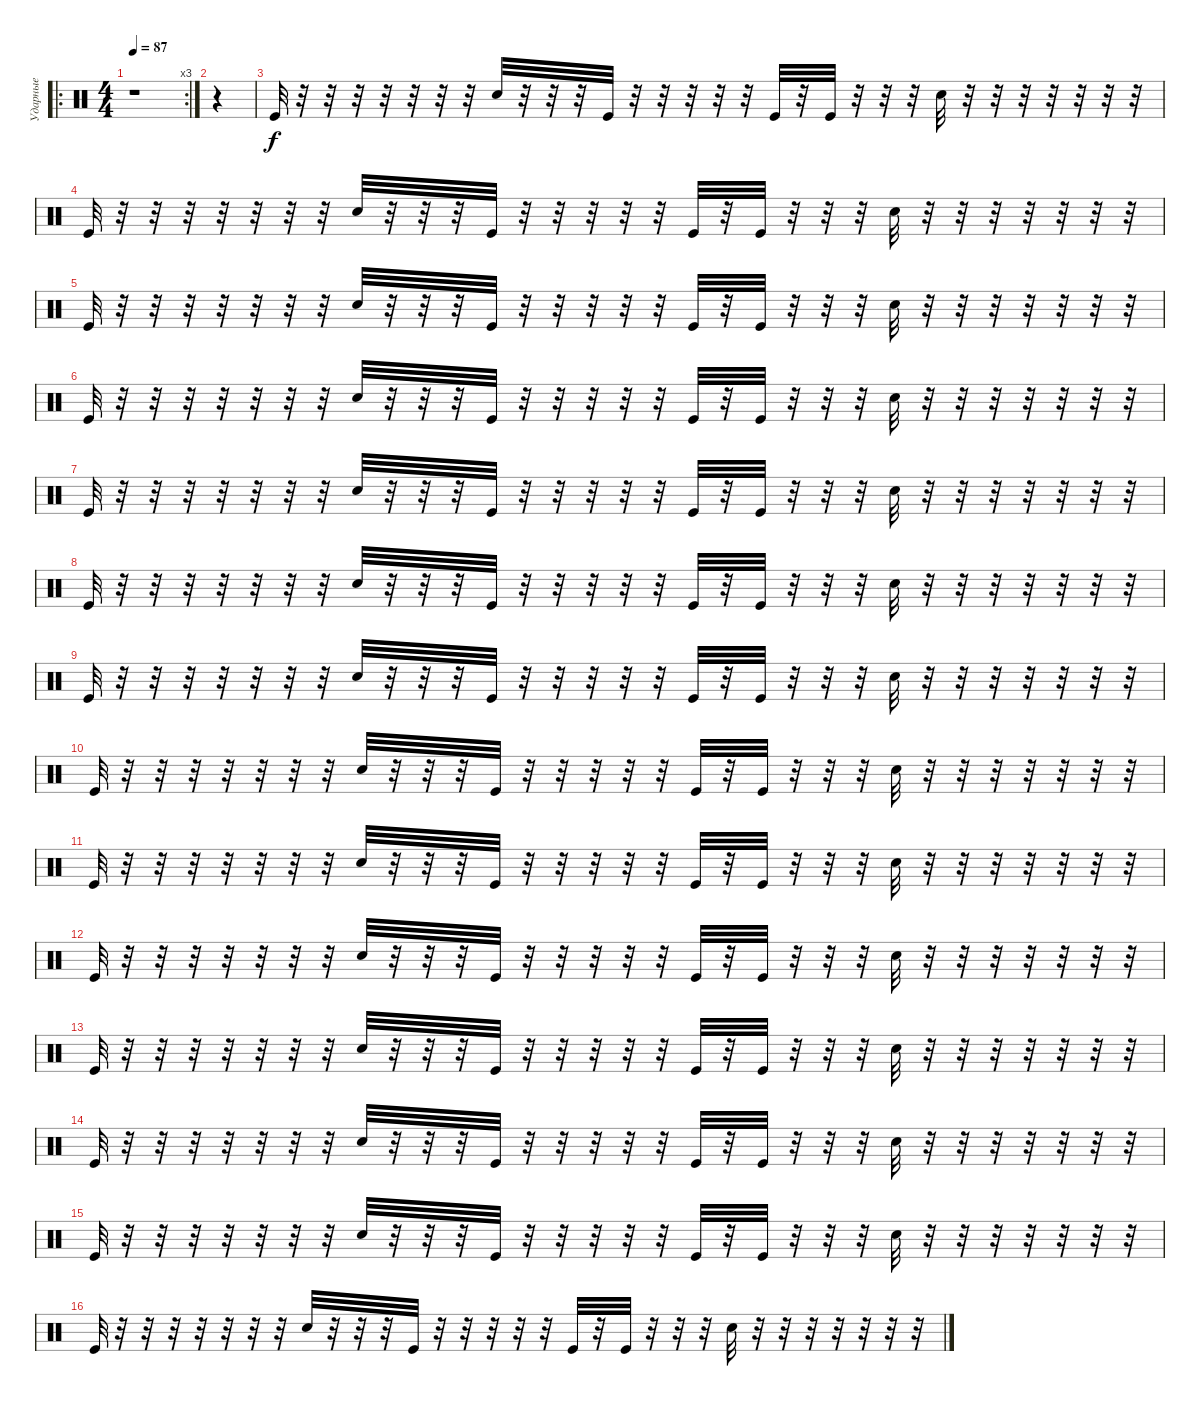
\track ("Ударные" "Ударные") {instrument percussion}
\staff {score}
\articulation defaults
\ro
\rc 3
\ts (4 4)
\tempo 87
\clef neutral
\ks c
r.1{dy f} |
r.4 |
"Kick (hit)".32 r.32 r.32 r.32 r.32 r.32 r.32 r.32 "Hand Clap (hit)".32 r.32 r.32 r.32 "Kick (hit)".32 r.32 r.32 r.32 r.32 r.32 "Kick (hit)".32 r.32 "Kick (hit)".32 r.32 r.32 r.32 "Hand Clap (hit)".32 r.32 r.32 r.32 r.32 r.32 r.32 r.32 |
"Kick (hit)".32 r.32 r.32 r.32 r.32 r.32 r.32 r.32 "Hand Clap (hit)".32 r.32 r.32 r.32 "Kick (hit)".32 r.32 r.32 r.32 r.32 r.32 "Kick (hit)".32 r.32 "Kick (hit)".32 r.32 r.32 r.32 "Hand Clap (hit)".32 r.32 r.32 r.32 r.32 r.32 r.32 r.32 |
"Kick (hit)".32 r.32 r.32 r.32 r.32 r.32 r.32 r.32 "Hand Clap (hit)".32 r.32 r.32 r.32 "Kick (hit)".32 r.32 r.32 r.32 r.32 r.32 "Kick (hit)".32 r.32 "Kick (hit)".32 r.32 r.32 r.32 "Hand Clap (hit)".32 r.32 r.32 r.32 r.32 r.32 r.32 r.32 |
"Kick (hit)".32 r.32 r.32 r.32 r.32 r.32 r.32 r.32 "Hand Clap (hit)".32 r.32 r.32 r.32 "Kick (hit)".32 r.32 r.32 r.32 r.32 r.32 "Kick (hit)".32 r.32 "Kick (hit)".32 r.32 r.32 r.32 "Hand Clap (hit)".32 r.32 r.32 r.32 r.32 r.32 r.32 r.32 |
"Kick (hit)".32 r.32 r.32 r.32 r.32 r.32 r.32 r.32 "Hand Clap (hit)".32 r.32 r.32 r.32 "Kick (hit)".32 r.32 r.32 r.32 r.32 r.32 "Kick (hit)".32 r.32 "Kick (hit)".32 r.32 r.32 r.32 "Hand Clap (hit)".32 r.32 r.32 r.32 r.32 r.32 r.32 r.32 |
"Kick (hit)".32 r.32 r.32 r.32 r.32 r.32 r.32 r.32 "Hand Clap (hit)".32 r.32 r.32 r.32 "Kick (hit)".32 r.32 r.32 r.32 r.32 r.32 "Kick (hit)".32 r.32 "Kick (hit)".32 r.32 r.32 r.32 "Hand Clap (hit)".32 r.32 r.32 r.32 r.32 r.32 r.32 r.32 |
"Kick (hit)".32 r.32 r.32 r.32 r.32 r.32 r.32 r.32 "Hand Clap (hit)".32 r.32 r.32 r.32 "Kick (hit)".32 r.32 r.32 r.32 r.32 r.32 "Kick (hit)".32 r.32 "Kick (hit)".32 r.32 r.32 r.32 "Hand Clap (hit)".32 r.32 r.32 r.32 r.32 r.32 r.32 r.32 |
"Kick (hit)".32 r.32 r.32 r.32 r.32 r.32 r.32 r.32 "Hand Clap (hit)".32 r.32 r.32 r.32 "Kick (hit)".32 r.32 r.32 r.32 r.32 r.32 "Kick (hit)".32 r.32 "Kick (hit)".32 r.32 r.32 r.32 "Hand Clap (hit)".32 r.32 r.32 r.32 r.32 r.32 r.32 r.32 |
"Kick (hit)".32 r.32 r.32 r.32 r.32 r.32 r.32 r.32 "Hand Clap (hit)".32 r.32 r.32 r.32 "Kick (hit)".32 r.32 r.32 r.32 r.32 r.32 "Kick (hit)".32 r.32 "Kick (hit)".32 r.32 r.32 r.32 "Hand Clap (hit)".32 r.32 r.32 r.32 r.32 r.32 r.32 r.32 |
"Kick (hit)".32 r.32 r.32 r.32 r.32 r.32 r.32 r.32 "Hand Clap (hit)".32 r.32 r.32 r.32 "Kick (hit)".32 r.32 r.32 r.32 r.32 r.32 "Kick (hit)".32 r.32 "Kick (hit)".32 r.32 r.32 r.32 "Hand Clap (hit)".32 r.32 r.32 r.32 r.32 r.32 r.32 r.32 |
"Kick (hit)".32 r.32 r.32 r.32 r.32 r.32 r.32 r.32 "Hand Clap (hit)".32 r.32 r.32 r.32 "Kick (hit)".32 r.32 r.32 r.32 r.32 r.32 "Kick (hit)".32 r.32 "Kick (hit)".32 r.32 r.32 r.32 "Hand Clap (hit)".32 r.32 r.32 r.32 r.32 r.32 r.32 r.32 |
"Kick (hit)".32 r.32 r.32 r.32 r.32 r.32 r.32 r.32 "Hand Clap (hit)".32 r.32 r.32 r.32 "Kick (hit)".32 r.32 r.32 r.32 r.32 r.32 "Kick (hit)".32 r.32 "Kick (hit)".32 r.32 r.32 r.32 "Hand Clap (hit)".32 r.32 r.32 r.32 r.32 r.32 r.32 r.32 |
"Kick (hit)".32 r.32 r.32 r.32 r.32 r.32 r.32 r.32 "Hand Clap (hit)".32 r.32 r.32 r.32 "Kick (hit)".32 r.32 r.32 r.32 r.32 r.32 "Kick (hit)".32 r.32 "Kick (hit)".32 r.32 r.32 r.32 "Hand Clap (hit)".32 r.32 r.32 r.32 r.32 r.32 r.32 r.32 |
"Kick (hit)".32 r.32 r.32 r.32 r.32 r.32 r.32 r.32 "Hand Clap (hit)".32 r.32 r.32 r.32 "Kick (hit)".32 r.32 r.32 r.32 r.32 r.32 "Kick (hit)".32 r.32 "Kick (hit)".32 r.32 r.32 r.32 "Hand Clap (hit)".32 r.32 r.32 r.32 r.32 r.32 r.32 r.32
